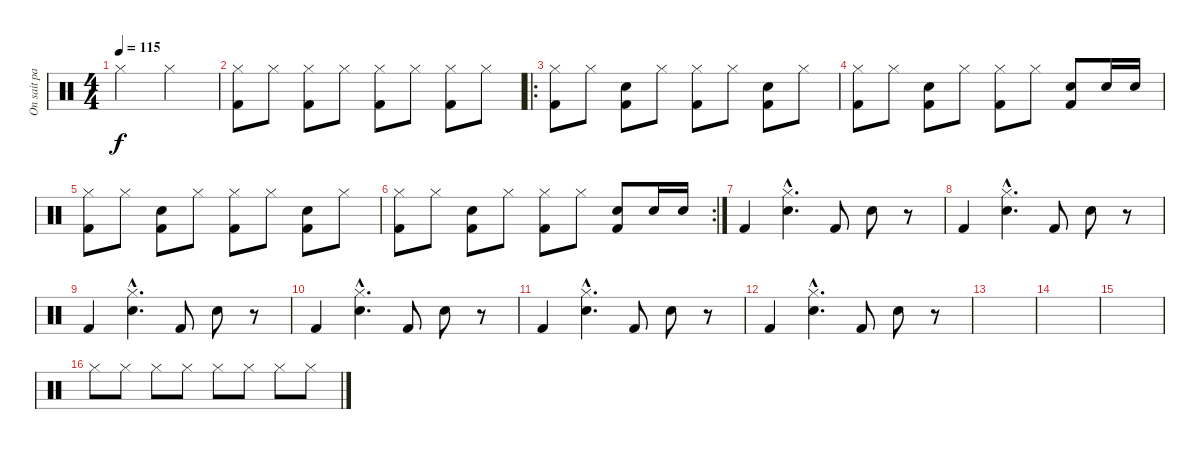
\track ("On sait pas encore" "On sait pa") {instrument percussion}
\staff {score}
\articulation defaults
\ts (4 4)
\tempo 115
\clef neutral
\ks c "Hi-Hat (closed)".2{dy f} "Hi-Hat (closed)".2
|
("Hi-Hat (closed)" "Kick (hit) 2").8 "Hi-Hat (closed)".8 ("Hi-Hat (closed)" "Kick (hit) 2").8 "Hi-Hat (closed)".8 ("Hi-Hat (closed)" "Kick (hit) 2").8 "Hi-Hat (closed)".8 ("Hi-Hat (closed)" "Kick (hit) 2").8 "Hi-Hat (closed)".8 |
\ro
("Hi-Hat (closed)" "Kick (hit) 2").8 "Hi-Hat (closed)".8 ("Snare (hit) 2" "Kick (hit) 2").8 "Hi-Hat (closed)".8 ("Hi-Hat (closed)" "Kick (hit) 2").8 "Hi-Hat (closed)".8 ("Snare (hit) 2" "Kick (hit) 2").8 "Hi-Hat (closed)".8 |
("Hi-Hat (closed)" "Kick (hit) 2").8 "Hi-Hat (closed)".8 ("Snare (hit) 2" "Kick (hit) 2").8 "Hi-Hat (closed)".8 ("Hi-Hat (closed)" "Kick (hit) 2").8 "Hi-Hat (closed)".8 ("Snare (hit) 2" "Kick (hit) 2").8 "Snare (hit) 2".16 "Snare (hit) 2".16 |
("Hi-Hat (closed)" "Kick (hit) 2").8 "Hi-Hat (closed)".8 ("Snare (hit) 2" "Kick (hit) 2").8 "Hi-Hat (closed)".8 ("Hi-Hat (closed)" "Kick (hit) 2").8 "Hi-Hat (closed)".8 ("Snare (hit) 2" "Kick (hit) 2").8 "Hi-Hat (closed)".8 |
\rc 2
("Hi-Hat (closed)" "Kick (hit) 2").8 "Hi-Hat (closed)".8 ("Snare (hit) 2" "Kick (hit) 2").8 "Hi-Hat (closed)".8 ("Hi-Hat (closed)" "Kick (hit) 2").8 "Hi-Hat (closed)".8 ("Snare (hit) 2" "Kick (hit) 2").8 "Snare (hit) 2".16 "Snare (hit) 2".16 |
"Kick (hit) 2".4 ("Hi-Hat (closed)"{hac} "Snare (hit) 2"{hac}).4{d} "Kick (hit) 2".8 "Snare (hit) 2".8 r.8 |
"Kick (hit) 2".4 ("Hi-Hat (closed)"{hac} "Snare (hit) 2"{hac}).4{d} "Kick (hit) 2".8 "Snare (hit) 2".8 r.8 |
"Kick (hit) 2".4 ("Hi-Hat (closed)"{hac} "Snare (hit) 2"{hac}).4{d} "Kick (hit) 2".8 "Snare (hit) 2".8 r.8 |
"Kick (hit) 2".4 ("Hi-Hat (closed)"{hac} "Snare (hit) 2"{hac}).4{d} "Kick (hit) 2".8 "Snare (hit) 2".8 r.8 |
"Kick (hit) 2".4 ("Hi-Hat (closed)"{hac} "Snare (hit) 2"{hac}).4{d} "Kick (hit) 2".8 "Snare (hit) 2".8 r.8 |
"Kick (hit) 2".4 ("Hi-Hat (closed)"{hac} "Snare (hit) 2"{hac}).4{d} "Kick (hit) 2".8 "Snare (hit) 2".8 r.8 |
|
|
|
"Hi-Hat (closed)".8{volume 2} "Hi-Hat (closed)".8{volume 14} "Hi-Hat (closed)".8 "Hi-Hat (closed)".8 "Hi-Hat (closed)".8 "Hi-Hat (closed)".8 "Hi-Hat (closed)".8 "Hi-Hat (closed)".8
